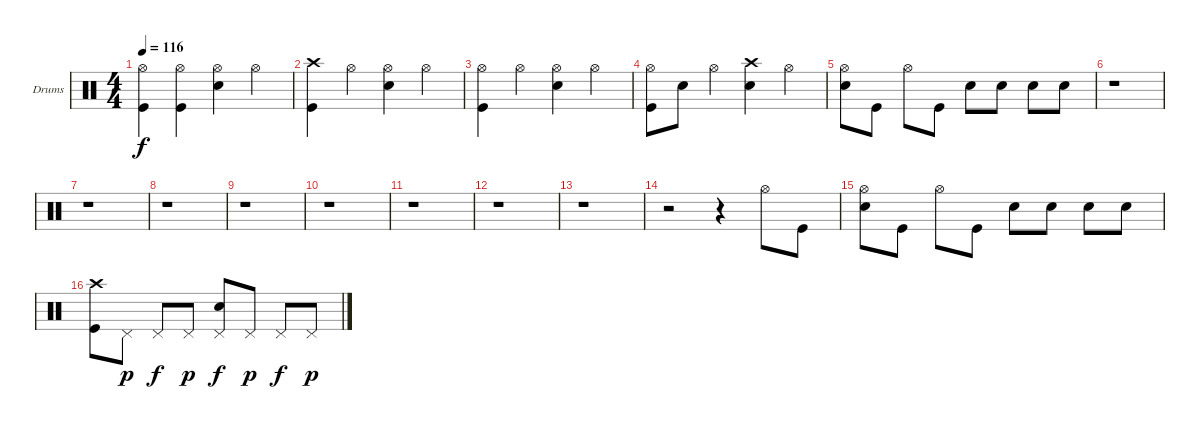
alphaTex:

\bracketExtendMode nobrackets
\firstSystemTrackNameOrientation horizontal
\otherSystemsTrackNameOrientation horizontal
\track ("Drumkit" "Drums") {instrument percussion}
\staff {score}
\articulation defaults
\ts (4 4)
\tempo 116
\clef neutral
\ks c
("Kick (hit)" "Hi-Hat (open)").4{dy f} ("Kick (hit)" "Hi-Hat (open)").4 ("Hi-Hat (open)" "Snare (hit) 2").4 "Hi-Hat (open)".4 |
("Kick (hit)" "Crash high (hit)").4 "Hi-Hat (open)".4 ("Hi-Hat (open)" "Snare (hit) 2").4 "Hi-Hat (open)".4 |
("Kick (hit)" "Hi-Hat (open)").4 "Hi-Hat (open)".4 ("Hi-Hat (open)" "Snare (hit) 2").4 "Hi-Hat (open)".4 |
("Kick (hit)" "Hi-Hat (open)").8 "Snare (hit) 2".8 "Hi-Hat (open)".4 ("Crash high (hit)" "Snare (hit) 2").4 "Hi-Hat (open)".4 |
("Hi-Hat (open)" "Snare (hit) 2").8 "Kick (hit)".8 "Hi-Hat (open)".8 "Kick (hit)".8 "Snare (hit) 2".8 "Snare (hit) 2".8 "Snare (hit) 2".8 "Snare (hit) 2".8 |
r.1 |
r.1 |
r.1 |
r.1 |
r.1 |
r.1 |
r.1 |
r.1 |
r.2 r.4 "Hi-Hat (open)".8 "Kick (hit)".8 |
("Hi-Hat (open)" "Snare (hit) 2").8 "Kick (hit)".8 "Hi-Hat (open)".8 "Kick (hit)".8 "Snare (hit) 2".8 "Snare (hit) 2".8 "Snare (hit) 2".8 "Snare (hit) 2".8 |
("Kick (hit)" "Crash high (hit)").8 "Pedal Hi-Hat (hit)".8{dy p} "Pedal Hi-Hat (hit)".8{dy f} "Pedal Hi-Hat (hit)".8{dy p} ("Pedal Hi-Hat (hit)" "Snare (hit) 2").8{dy f} "Pedal Hi-Hat (hit)".8{dy p} "Pedal Hi-Hat (hit)".8{dy f} "Pedal Hi-Hat (hit)".8{dy p}
